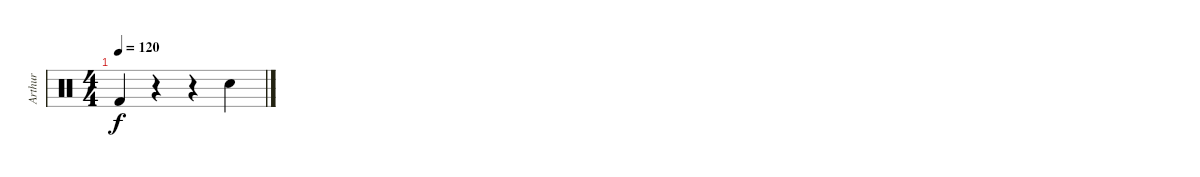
\track ("Arthur" "Arthur") {instrument percussion}
\staff {score}
\articulation defaults
\ts (4 4)
\tempo 120
\clef neutral
\ks c "Kick (hit) 2".4{dy f}
r.4 r.4 "Snare (hit) 2".4
